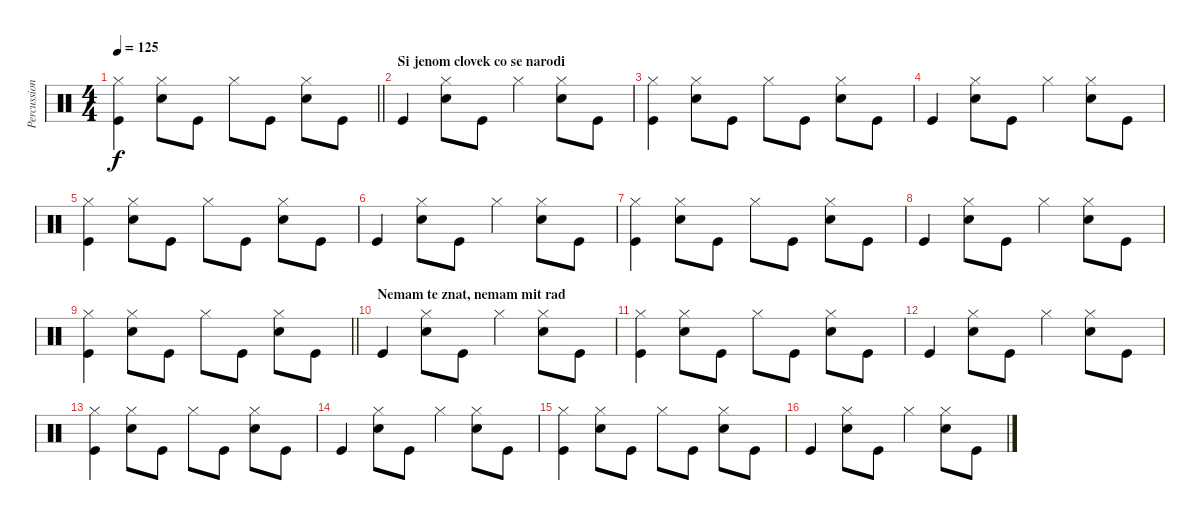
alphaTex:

\track ("Percussion" "Percussion") {instrument percussion}
\staff {score}
\articulation defaults
\ts (4 4)
\tempo 125
\clef neutral
\barLineRight lightlight
\ks c
("Hi-Hat (closed)" "Kick (hit)").4{dy f} ("Hi-Hat (closed)" "Snare (hit) 2").8 "Kick (hit)".8 "Hi-Hat (closed)".8 "Kick (hit)".8 ("Hi-Hat (closed)" "Snare (hit) 2").8 "Kick (hit)".8 |
\section ("" "Si jenom clovek co se narodi")
"Kick (hit)".4 ("Hi-Hat (closed)" "Snare (hit) 2").8 "Kick (hit)".8 "Hi-Hat (closed)".4 ("Hi-Hat (closed)" "Snare (hit) 2").8 "Kick (hit)".8 |
("Hi-Hat (closed)" "Kick (hit)").4 ("Hi-Hat (closed)" "Snare (hit) 2").8 "Kick (hit)".8 "Hi-Hat (closed)".8 "Kick (hit)".8 ("Hi-Hat (closed)" "Snare (hit) 2").8 "Kick (hit)".8 |
"Kick (hit)".4 ("Hi-Hat (closed)" "Snare (hit) 2").8 "Kick (hit)".8 "Hi-Hat (closed)".4 ("Hi-Hat (closed)" "Snare (hit) 2").8 "Kick (hit)".8 |
("Hi-Hat (closed)" "Kick (hit)").4 ("Hi-Hat (closed)" "Snare (hit) 2").8 "Kick (hit)".8 "Hi-Hat (closed)".8 "Kick (hit)".8 ("Hi-Hat (closed)" "Snare (hit) 2").8 "Kick (hit)".8 |
"Kick (hit)".4 ("Hi-Hat (closed)" "Snare (hit) 2").8 "Kick (hit)".8 "Hi-Hat (closed)".4 ("Hi-Hat (closed)" "Snare (hit) 2").8 "Kick (hit)".8 |
("Hi-Hat (closed)" "Kick (hit)").4 ("Hi-Hat (closed)" "Snare (hit) 2").8 "Kick (hit)".8 "Hi-Hat (closed)".8 "Kick (hit)".8 ("Hi-Hat (closed)" "Snare (hit) 2").8 "Kick (hit)".8 |
"Kick (hit)".4 ("Hi-Hat (closed)" "Snare (hit) 2").8 "Kick (hit)".8 "Hi-Hat (closed)".4 ("Hi-Hat (closed)" "Snare (hit) 2").8 "Kick (hit)".8 |
\barLineRight lightlight
("Hi-Hat (closed)" "Kick (hit)").4 ("Hi-Hat (closed)" "Snare (hit) 2").8 "Kick (hit)".8 "Hi-Hat (closed)".8 "Kick (hit)".8 ("Hi-Hat (closed)" "Snare (hit) 2").8 "Kick (hit)".8 |
\section ("" "Nemam te znat, nemam mit rad")
"Kick (hit)".4 ("Hi-Hat (closed)" "Snare (hit) 2").8 "Kick (hit)".8 "Hi-Hat (closed)".4 ("Hi-Hat (closed)" "Snare (hit) 2").8 "Kick (hit)".8 |
("Hi-Hat (closed)" "Kick (hit)").4 ("Hi-Hat (closed)" "Snare (hit) 2").8 "Kick (hit)".8 "Hi-Hat (closed)".8 "Kick (hit)".8 ("Hi-Hat (closed)" "Snare (hit) 2").8 "Kick (hit)".8 |
"Kick (hit)".4 ("Hi-Hat (closed)" "Snare (hit) 2").8 "Kick (hit)".8 "Hi-Hat (closed)".4 ("Hi-Hat (closed)" "Snare (hit) 2").8 "Kick (hit)".8 |
("Hi-Hat (closed)" "Kick (hit)").4 ("Hi-Hat (closed)" "Snare (hit) 2").8 "Kick (hit)".8 "Hi-Hat (closed)".8 "Kick (hit)".8 ("Hi-Hat (closed)" "Snare (hit) 2").8 "Kick (hit)".8 |
"Kick (hit)".4 ("Hi-Hat (closed)" "Snare (hit) 2").8 "Kick (hit)".8 "Hi-Hat (closed)".4 ("Hi-Hat (closed)" "Snare (hit) 2").8 "Kick (hit)".8 |
("Hi-Hat (closed)" "Kick (hit)").4 ("Hi-Hat (closed)" "Snare (hit) 2").8 "Kick (hit)".8 "Hi-Hat (closed)".8 "Kick (hit)".8 ("Hi-Hat (closed)" "Snare (hit) 2").8 "Kick (hit)".8 |
"Kick (hit)".4 ("Hi-Hat (closed)" "Snare (hit) 2").8 "Kick (hit)".8 "Hi-Hat (closed)".4 ("Hi-Hat (closed)" "Snare (hit) 2").8 "Kick (hit)".8
